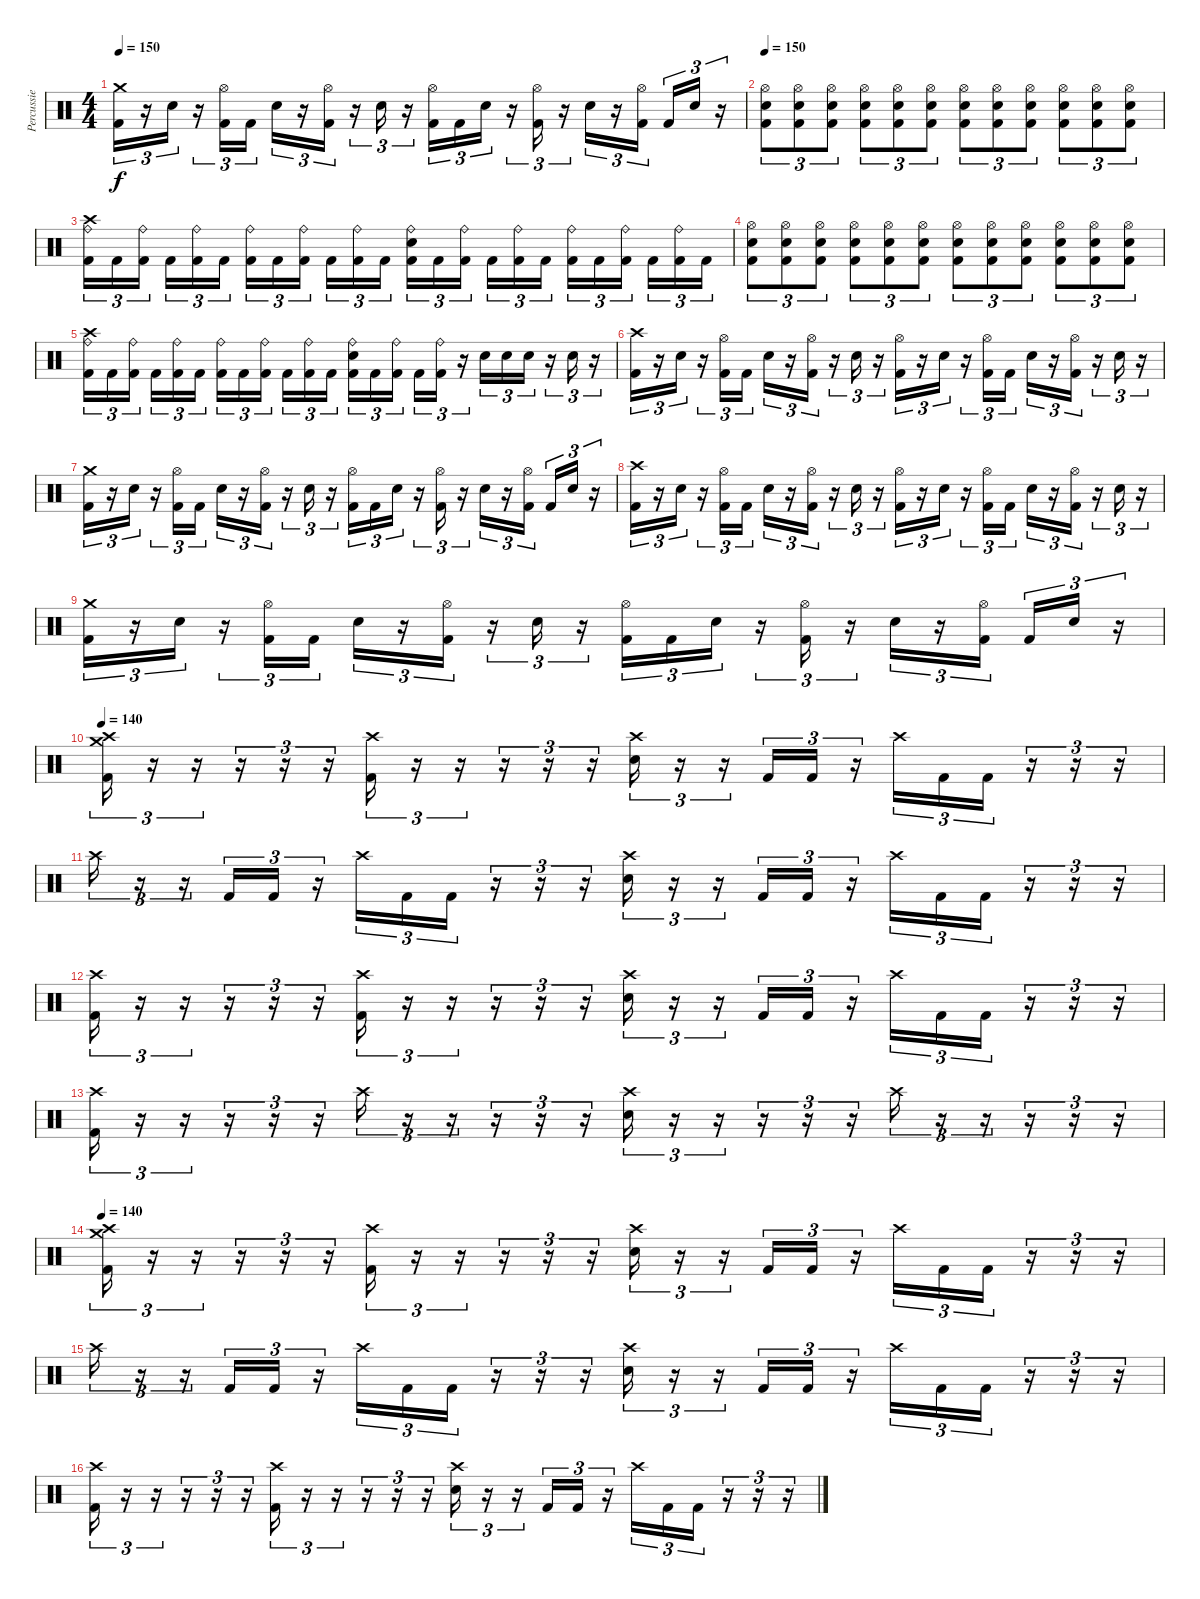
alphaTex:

\track ("Percussie" "Percussie") {instrument percussion}
\staff {score}
\articulation defaults
\ts (4 4)
\tempo 150
\clef neutral
\ks c
("Crash medium (hit)" "Kick (hit) 2").16{tu (3 2) dy f} r.16{tu (3 2)} "Electric Snare (hit)".16{tu (3 2)} r.16{tu (3 2)} ("Hi-Hat (open)" "Kick (hit) 2").16{tu (3 2)} "Kick (hit) 2".16{tu (3 2)} "Electric Snare (hit)".16{tu (3 2)} r.16{tu (3 2)} ("Hi-Hat (open)" "Kick (hit) 2").16{tu (3 2)} r.16{tu (3 2)} "Electric Snare (hit)".16{tu (3 2)} r.16{tu (3 2)} ("Hi-Hat (open)" "Kick (hit) 2").16{tu (3 2)} "Kick (hit) 2".16{tu (3 2)} "Electric Snare (hit)".16{tu (3 2)} r.16{tu (3 2)} ("Hi-Hat (open)" "Kick (hit) 2").16{tu (3 2)} r.16{tu (3 2)} "Electric Snare (hit)".16{tu (3 2)} r.16{tu (3 2)} ("Hi-Hat (open)" "Kick (hit) 2").16{tu (3 2) beam splitsecondary} "Kick (hit) 2".16{tu (3 2)} "Electric Snare (hit)".16{tu (3 2)} r.16{tu (3 2)} |
\tempo 150
("Hi-Hat (open)" "Electric Snare (hit)" "Kick (hit) 2").8{tu (3 2)} ("Hi-Hat (open)" "Electric Snare (hit)" "Kick (hit) 2").8{tu (3 2)} ("Hi-Hat (open)" "Electric Snare (hit)" "Kick (hit) 2").8{tu (3 2)} ("Hi-Hat (open)" "Electric Snare (hit)" "Kick (hit) 2").8{tu (3 2)} ("Hi-Hat (open)" "Electric Snare (hit)" "Kick (hit) 2").8{tu (3 2)} ("Hi-Hat (open)" "Electric Snare (hit)" "Kick (hit) 2").8{tu (3 2)} ("Hi-Hat (open)" "Electric Snare (hit)" "Kick (hit) 2").8{tu (3 2)} ("Hi-Hat (open)" "Electric Snare (hit)" "Kick (hit) 2").8{tu (3 2)} ("Hi-Hat (open)" "Electric Snare (hit)" "Kick (hit) 2").8{tu (3 2)} ("Hi-Hat (open)" "Electric Snare (hit)" "Kick (hit) 2").8{tu (3 2)} ("Hi-Hat (open)" "Electric Snare (hit)" "Kick (hit) 2").8{tu (3 2)} ("Hi-Hat (open)" "Electric Snare (hit)" "Kick (hit) 2").8{tu (3 2)} |
("Ride (bell)" "Crash high (hit)" "Kick (hit) 2").16{tu (3 2)} "Kick (hit) 2".16{tu (3 2)} ("Ride (bell)" "Kick (hit) 2").16{tu (3 2) beam splitsecondary} "Kick (hit) 2".16{tu (3 2)} ("Ride (bell)" "Kick (hit) 2").16{tu (3 2)} "Kick (hit) 2".16{tu (3 2)} ("Ride (bell)" "Kick (hit) 2").16{tu (3 2)} "Kick (hit) 2".16{tu (3 2)} ("Ride (bell)" "Kick (hit) 2").16{tu (3 2) beam splitsecondary} "Kick (hit) 2".16{tu (3 2)} ("Ride (bell)" "Kick (hit) 2").16{tu (3 2)} "Kick (hit) 2".16{tu (3 2)} ("Ride (bell)" "Electric Snare (hit)" "Kick (hit) 2").16{tu (3 2)} "Kick (hit) 2".16{tu (3 2)} ("Ride (bell)" "Kick (hit) 2").16{tu (3 2) beam splitsecondary} "Kick (hit) 2".16{tu (3 2)} ("Ride (bell)" "Kick (hit) 2").16{tu (3 2)} "Kick (hit) 2".16{tu (3 2)} ("Ride (bell)" "Kick (hit) 2").16{tu (3 2)} "Kick (hit) 2".16{tu (3 2)} ("Ride (bell)" "Kick (hit) 2").16{tu (3 2) beam splitsecondary} "Kick (hit) 2".16{tu (3 2)} ("Ride (bell)" "Kick (hit) 2").16{tu (3 2)} "Kick (hit) 2".16{tu (3 2)} |
("Hi-Hat (open)" "Electric Snare (hit)" "Kick (hit) 2").8{tu (3 2)} ("Hi-Hat (open)" "Electric Snare (hit)" "Kick (hit) 2").8{tu (3 2)} ("Hi-Hat (open)" "Electric Snare (hit)" "Kick (hit) 2").8{tu (3 2)} ("Hi-Hat (open)" "Electric Snare (hit)" "Kick (hit) 2").8{tu (3 2)} ("Hi-Hat (open)" "Electric Snare (hit)" "Kick (hit) 2").8{tu (3 2)} ("Hi-Hat (open)" "Electric Snare (hit)" "Kick (hit) 2").8{tu (3 2)} ("Hi-Hat (open)" "Electric Snare (hit)" "Kick (hit) 2").8{tu (3 2)} ("Hi-Hat (open)" "Electric Snare (hit)" "Kick (hit) 2").8{tu (3 2)} ("Hi-Hat (open)" "Electric Snare (hit)" "Kick (hit) 2").8{tu (3 2)} ("Hi-Hat (open)" "Electric Snare (hit)" "Kick (hit) 2").8{tu (3 2)} ("Hi-Hat (open)" "Electric Snare (hit)" "Kick (hit) 2").8{tu (3 2)} ("Hi-Hat (open)" "Electric Snare (hit)" "Kick (hit) 2").8{tu (3 2)} |
("Ride (bell)" "Crash high (hit)" "Kick (hit) 2").16{tu (3 2)} "Kick (hit) 2".16{tu (3 2)} ("Ride (bell)" "Kick (hit) 2").16{tu (3 2) beam splitsecondary} "Kick (hit) 2".16{tu (3 2)} ("Ride (bell)" "Kick (hit) 2").16{tu (3 2)} "Kick (hit) 2".16{tu (3 2)} ("Ride (bell)" "Kick (hit) 2").16{tu (3 2)} "Kick (hit) 2".16{tu (3 2)} ("Ride (bell)" "Kick (hit) 2").16{tu (3 2) beam splitsecondary} "Kick (hit) 2".16{tu (3 2)} ("Ride (bell)" "Kick (hit) 2").16{tu (3 2)} "Kick (hit) 2".16{tu (3 2)} ("Ride (bell)" "Electric Snare (hit)" "Kick (hit) 2").16{tu (3 2)} "Kick (hit) 2".16{tu (3 2)} ("Ride (bell)" "Kick (hit) 2").16{tu (3 2) beam splitsecondary} "Kick (hit) 2".16{tu (3 2)} ("Ride (bell)" "Kick (hit) 2").16{tu (3 2)} r.16{tu (3 2)} "Electric Snare (hit)".16{tu (3 2)} "Electric Snare (hit)".16{tu (3 2)} "Electric Snare (hit)".16{tu (3 2)} r.16{tu (3 2)} "Electric Snare (hit)".16{tu (3 2)} r.16{tu (3 2)} |
("Crash high (hit)" "Kick (hit) 2").16{tu (3 2)} r.16{tu (3 2)} "Electric Snare (hit)".16{tu (3 2)} r.16{tu (3 2)} ("Hi-Hat (open)" "Kick (hit) 2").16{tu (3 2)} "Kick (hit) 2".16{tu (3 2)} "Electric Snare (hit)".16{tu (3 2)} r.16{tu (3 2)} ("Hi-Hat (open)" "Kick (hit) 2").16{tu (3 2)} r.16{tu (3 2)} "Electric Snare (hit)".16{tu (3 2)} r.16{tu (3 2)} ("Hi-Hat (open)" "Kick (hit) 2").16{tu (3 2)} r.16{tu (3 2)} "Electric Snare (hit)".16{tu (3 2)} r.16{tu (3 2)} ("Hi-Hat (open)" "Kick (hit) 2").16{tu (3 2)} "Kick (hit) 2".16{tu (3 2)} "Electric Snare (hit)".16{tu (3 2)} r.16{tu (3 2)} ("Hi-Hat (open)" "Kick (hit) 2").16{tu (3 2)} r.16{tu (3 2)} "Electric Snare (hit)".16{tu (3 2)} r.16{tu (3 2)} |
("Crash medium (hit)" "Kick (hit) 2").16{tu (3 2)} r.16{tu (3 2)} "Electric Snare (hit)".16{tu (3 2)} r.16{tu (3 2)} ("Hi-Hat (open)" "Kick (hit) 2").16{tu (3 2)} "Kick (hit) 2".16{tu (3 2)} "Electric Snare (hit)".16{tu (3 2)} r.16{tu (3 2)} ("Hi-Hat (open)" "Kick (hit) 2").16{tu (3 2)} r.16{tu (3 2)} "Electric Snare (hit)".16{tu (3 2)} r.16{tu (3 2)} ("Hi-Hat (open)" "Kick (hit) 2").16{tu (3 2)} "Kick (hit) 2".16{tu (3 2)} "Electric Snare (hit)".16{tu (3 2)} r.16{tu (3 2)} ("Hi-Hat (open)" "Kick (hit) 2").16{tu (3 2)} r.16{tu (3 2)} "Electric Snare (hit)".16{tu (3 2)} r.16{tu (3 2)} ("Hi-Hat (open)" "Kick (hit) 2").16{tu (3 2) beam splitsecondary} "Kick (hit) 2".16{tu (3 2)} "Electric Snare (hit)".16{tu (3 2)} r.16{tu (3 2)} |
("Crash high (hit)" "Kick (hit) 2").16{tu (3 2)} r.16{tu (3 2)} "Electric Snare (hit)".16{tu (3 2)} r.16{tu (3 2)} ("Hi-Hat (open)" "Kick (hit) 2").16{tu (3 2)} "Kick (hit) 2".16{tu (3 2)} "Electric Snare (hit)".16{tu (3 2)} r.16{tu (3 2)} ("Hi-Hat (open)" "Kick (hit) 2").16{tu (3 2)} r.16{tu (3 2)} "Electric Snare (hit)".16{tu (3 2)} r.16{tu (3 2)} ("Hi-Hat (open)" "Kick (hit) 2").16{tu (3 2)} r.16{tu (3 2)} "Electric Snare (hit)".16{tu (3 2)} r.16{tu (3 2)} ("Hi-Hat (open)" "Kick (hit) 2").16{tu (3 2)} "Kick (hit) 2".16{tu (3 2)} "Electric Snare (hit)".16{tu (3 2)} r.16{tu (3 2)} ("Hi-Hat (open)" "Kick (hit) 2").16{tu (3 2)} r.16{tu (3 2)} "Electric Snare (hit)".16{tu (3 2)} r.16{tu (3 2)} |
("Crash medium (hit)" "Kick (hit) 2").16{tu (3 2)} r.16{tu (3 2)} "Electric Snare (hit)".16{tu (3 2)} r.16{tu (3 2)} ("Hi-Hat (open)" "Kick (hit) 2").16{tu (3 2)} "Kick (hit) 2".16{tu (3 2)} "Electric Snare (hit)".16{tu (3 2)} r.16{tu (3 2)} ("Hi-Hat (open)" "Kick (hit) 2").16{tu (3 2)} r.16{tu (3 2)} "Electric Snare (hit)".16{tu (3 2)} r.16{tu (3 2)} ("Hi-Hat (open)" "Kick (hit) 2").16{tu (3 2)} "Kick (hit) 2".16{tu (3 2)} "Electric Snare (hit)".16{tu (3 2)} r.16{tu (3 2)} ("Hi-Hat (open)" "Kick (hit) 2").16{tu (3 2)} r.16{tu (3 2)} "Electric Snare (hit)".16{tu (3 2)} r.16{tu (3 2)} ("Hi-Hat (open)" "Kick (hit) 2").16{tu (3 2) beam splitsecondary} "Kick (hit) 2".16{tu (3 2)} "Electric Snare (hit)".16{tu (3 2)} r.16{tu (3 2)} |
\tempo 140
("Crash high (hit)" "Crash medium (hit)" "Kick (hit) 2").16{tu (3 2)} r.16{tu (3 2)} r.16{tu (3 2)} r.16{tu (3 2)} r.16{tu (3 2)} r.16{tu (3 2)} ("Crash high (hit)" "Kick (hit) 2").16{tu (3 2)} r.16{tu (3 2)} r.16{tu (3 2)} r.16{tu (3 2)} r.16{tu (3 2)} r.16{tu (3 2)} ("Crash high (hit)" "Electric Snare (hit)").16{tu (3 2)} r.16{tu (3 2)} r.16{tu (3 2)} "Kick (hit) 2".16{tu (3 2)} "Kick (hit) 2".16{tu (3 2)} r.16{tu (3 2)} "Crash high (hit)".16{tu (3 2)} "Kick (hit) 2".16{tu (3 2)} "Kick (hit) 2".16{tu (3 2)} r.16{tu (3 2)} r.16{tu (3 2)} r.16{tu (3 2)} |
"Crash high (hit)".16{tu (3 2)} r.16{tu (3 2)} r.16{tu (3 2)} "Kick (hit) 2".16{tu (3 2)} "Kick (hit) 2".16{tu (3 2)} r.16{tu (3 2)} "Crash high (hit)".16{tu (3 2)} "Kick (hit) 2".16{tu (3 2)} "Kick (hit) 2".16{tu (3 2)} r.16{tu (3 2)} r.16{tu (3 2)} r.16{tu (3 2)} ("Crash high (hit)" "Electric Snare (hit)").16{tu (3 2)} r.16{tu (3 2)} r.16{tu (3 2)} "Kick (hit) 2".16{tu (3 2)} "Kick (hit) 2".16{tu (3 2)} r.16{tu (3 2)} "Crash high (hit)".16{tu (3 2)} "Kick (hit) 2".16{tu (3 2)} "Kick (hit) 2".16{tu (3 2)} r.16{tu (3 2)} r.16{tu (3 2)} r.16{tu (3 2)} |
("Crash high (hit)" "Kick (hit) 2").16{tu (3 2)} r.16{tu (3 2)} r.16{tu (3 2)} r.16{tu (3 2)} r.16{tu (3 2)} r.16{tu (3 2)} ("Crash high (hit)" "Kick (hit) 2").16{tu (3 2)} r.16{tu (3 2)} r.16{tu (3 2)} r.16{tu (3 2)} r.16{tu (3 2)} r.16{tu (3 2)} ("Crash high (hit)" "Electric Snare (hit)").16{tu (3 2)} r.16{tu (3 2)} r.16{tu (3 2)} "Kick (hit) 2".16{tu (3 2)} "Kick (hit) 2".16{tu (3 2)} r.16{tu (3 2)} "Crash high (hit)".16{tu (3 2)} "Kick (hit) 2".16{tu (3 2)} "Kick (hit) 2".16{tu (3 2)} r.16{tu (3 2)} r.16{tu (3 2)} r.16{tu (3 2)} |
("Crash high (hit)" "Kick (hit) 2").16{tu (3 2)} r.16{tu (3 2)} r.16{tu (3 2)} r.16{tu (3 2)} r.16{tu (3 2)} r.16{tu (3 2)} "Crash high (hit)".16{tu (3 2)} r.16{tu (3 2)} r.16{tu (3 2)} r.16{tu (3 2)} r.16{tu (3 2)} r.16{tu (3 2)} ("Crash high (hit)" "Electric Snare (hit)").16{tu (3 2)} r.16{tu (3 2)} r.16{tu (3 2)} r.16{tu (3 2)} r.16{tu (3 2)} r.16{tu (3 2)} "Crash high (hit)".16{tu (3 2)} r.16{tu (3 2)} r.16{tu (3 2)} r.16{tu (3 2)} r.16{tu (3 2)} r.16{tu (3 2)} |
\tempo 140
("Crash high (hit)" "Crash medium (hit)" "Kick (hit) 2").16{tu (3 2)} r.16{tu (3 2)} r.16{tu (3 2)} r.16{tu (3 2)} r.16{tu (3 2)} r.16{tu (3 2)} ("Crash high (hit)" "Kick (hit) 2").16{tu (3 2)} r.16{tu (3 2)} r.16{tu (3 2)} r.16{tu (3 2)} r.16{tu (3 2)} r.16{tu (3 2)} ("Crash high (hit)" "Electric Snare (hit)").16{tu (3 2)} r.16{tu (3 2)} r.16{tu (3 2)} "Kick (hit) 2".16{tu (3 2)} "Kick (hit) 2".16{tu (3 2)} r.16{tu (3 2)} "Crash high (hit)".16{tu (3 2)} "Kick (hit) 2".16{tu (3 2)} "Kick (hit) 2".16{tu (3 2)} r.16{tu (3 2)} r.16{tu (3 2)} r.16{tu (3 2)} |
"Crash high (hit)".16{tu (3 2)} r.16{tu (3 2)} r.16{tu (3 2)} "Kick (hit) 2".16{tu (3 2)} "Kick (hit) 2".16{tu (3 2)} r.16{tu (3 2)} "Crash high (hit)".16{tu (3 2)} "Kick (hit) 2".16{tu (3 2)} "Kick (hit) 2".16{tu (3 2)} r.16{tu (3 2)} r.16{tu (3 2)} r.16{tu (3 2)} ("Crash high (hit)" "Electric Snare (hit)").16{tu (3 2)} r.16{tu (3 2)} r.16{tu (3 2)} "Kick (hit) 2".16{tu (3 2)} "Kick (hit) 2".16{tu (3 2)} r.16{tu (3 2)} "Crash high (hit)".16{tu (3 2)} "Kick (hit) 2".16{tu (3 2)} "Kick (hit) 2".16{tu (3 2)} r.16{tu (3 2)} r.16{tu (3 2)} r.16{tu (3 2)} |
("Crash high (hit)" "Kick (hit) 2").16{tu (3 2)} r.16{tu (3 2)} r.16{tu (3 2)} r.16{tu (3 2)} r.16{tu (3 2)} r.16{tu (3 2)} ("Crash high (hit)" "Kick (hit) 2").16{tu (3 2)} r.16{tu (3 2)} r.16{tu (3 2)} r.16{tu (3 2)} r.16{tu (3 2)} r.16{tu (3 2)} ("Crash high (hit)" "Electric Snare (hit)").16{tu (3 2)} r.16{tu (3 2)} r.16{tu (3 2)} "Kick (hit) 2".16{tu (3 2)} "Kick (hit) 2".16{tu (3 2)} r.16{tu (3 2)} "Crash high (hit)".16{tu (3 2)} "Kick (hit) 2".16{tu (3 2)} "Kick (hit) 2".16{tu (3 2)} r.16{tu (3 2)} r.16{tu (3 2)} r.16{tu (3 2)}
